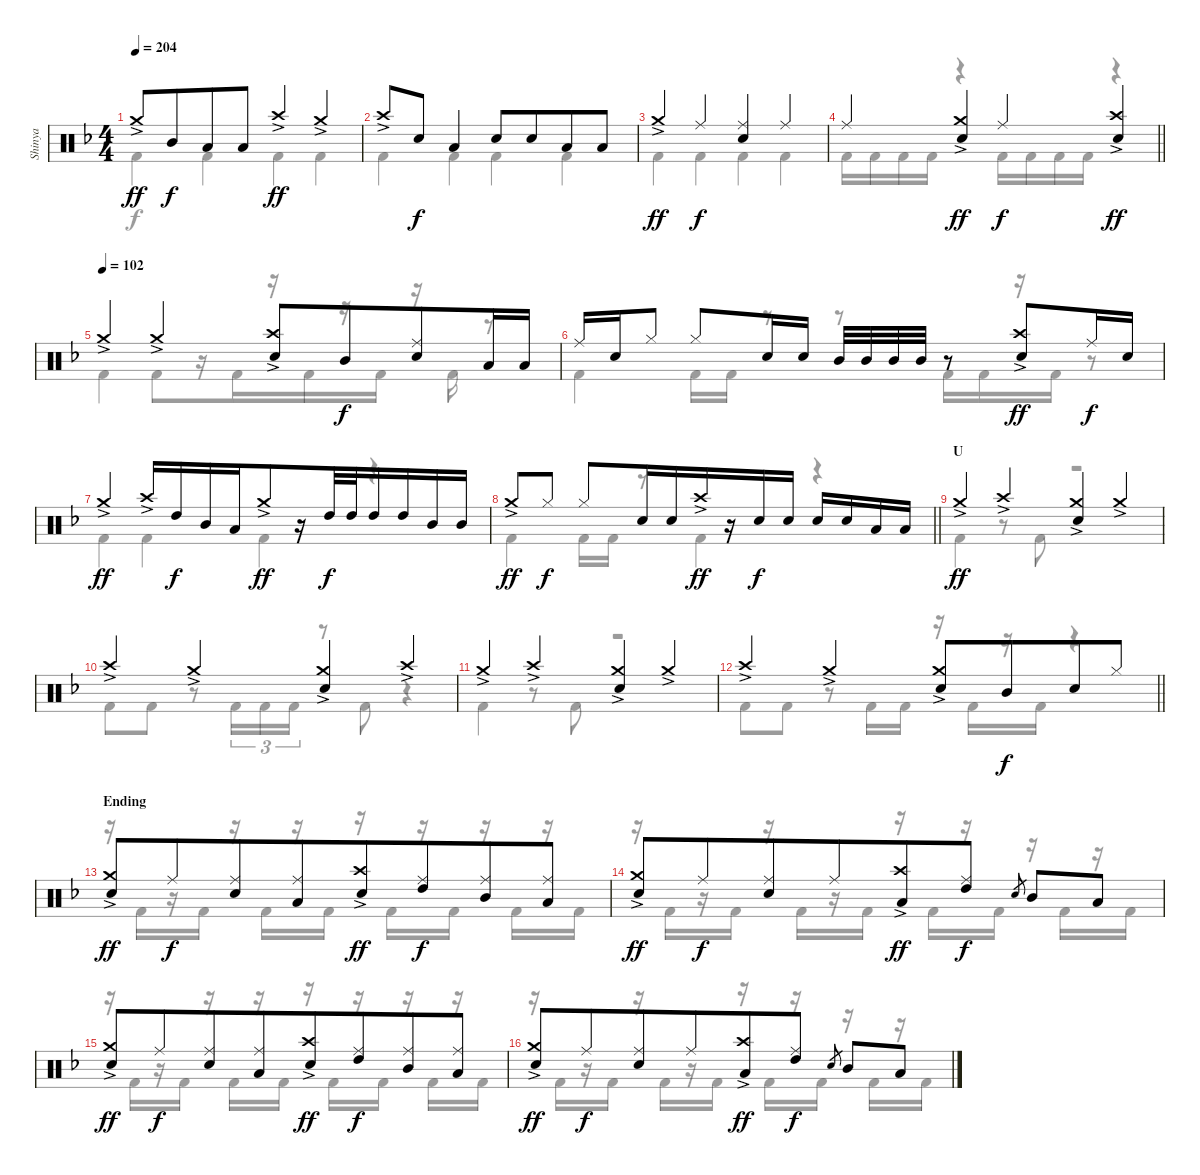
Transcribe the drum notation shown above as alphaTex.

\track ("Shinya" "Shinya") {mute instrument percussion}
\staff {score}
\articulation defaults
\voice
\ts (4 4)
\tempo 204
\clef neutral
\ks f "Crash medium (hit)"{ac}.8{dy ff} "Mid Tom (hit)".8{dy f beam merge} "Low Tom (hit)".8{beam merge} "Low Tom (hit)".8{beam merge} "Crash high (hit)"{ac}.4{dy ff} "Crash medium (hit)"{ac}.4
|
"Crash high (hit)"{ac}.8 "Snare (hit) 2".8{dy f} "Low Tom (hit)".4{beam merge} "Snare (hit) 2".8 "Snare (hit) 2".8{beam merge} "Low Tom (hit)".8 "Low Tom (hit)".8 |
"Crash medium (hit)"{ac}.4{dy ff} "Ride (middle)".4{dy f} ("Ride (middle)" "Snare (hit) 2").4{beam merge} "Ride (middle)".4 |
\barLineRight lightlight "Ride (middle)".4
("Crash medium (hit)"{ac} "Snare (hit) 2").4{dy ff} "Ride (middle)".4{dy f beam merge} ("Crash high (hit)"{ac} "Snare (hit) 2").4{dy ff} |
\tempo (102)
"Crash medium (hit)"{ac}.4{beam merge} "Crash medium (hit)"{ac}.4{beam merge} ("Crash high (hit)"{ac} "Snare (hit) 2").8 "Mid Tom (hit)".8{dy f beam merge} ("Ride (middle)" "Snare (hit) 2").8 "Low Tom (hit)".16 "Low Tom (hit)".16 |
"Ride (middle)".16 "Snare (hit) 2".16 "Hi-Hat (closed)".8 "Hi-Hat (closed)".8 "Snare (hit) 2".16{beam merge} "Snare (hit) 2".16 "Mid Tom (hit)".32 "Mid Tom (hit)".32 "Mid Tom (hit)".32{beam merge} "Mid Tom (hit)".32 r.8{beam merge} ("Crash high (hit)"{ac} "Snare (hit) 2").8{dy ff} "Ride (middle)".16{dy f} "Snare (hit) 2".16 |
"Crash medium (hit)"{ac}.4{dy ff} "Crash high (hit)"{ac}.16 "High Tom (hit)".16{dy f} "Mid Tom (hit)".16 "Low Tom (hit)".16{beam merge} "Crash medium (hit)"{ac}.8{dy ff} r.16 "High Tom (hit)".32{dy f} "High Tom (hit)".32{beam merge} "High Tom (hit)".16 "High Tom (hit)".16 "Mid Tom (hit)".16{beam merge} "Mid Tom (hit)".16 |
\barLineRight lightlight "Crash medium (hit)"{ac}.8{dy ff} "Hi-Hat (closed)".8{dy f} "Hi-Hat (closed)".8{beam merge} "Snare (hit) 2".16{beam merge} "Snare (hit) 2".16{beam merge} "Crash high (hit)"{ac}.16{dy ff}
r.16{beam merge} "Snare (hit) 2".16{dy f} "Snare (hit) 2".16 "Snare (hit) 2".16{beam merge} "Snare (hit) 2".16 "Low Tom (hit)".16 "Low Tom (hit)".16 |
\section ("" "U")
"Crash medium (hit)"{ac}.4{dy ff} "Crash high (hit)"{ac}.4 ("Crash medium (hit)"{ac} "Snare (hit) 2").4{beam merge} "Crash medium (hit)"{ac}.4 |
"Crash high (hit)"{ac}.4 "Crash medium (hit)"{ac}.4 ("Crash medium (hit)"{ac} "Snare (hit) 2").4{beam merge} "Crash high (hit)"{ac}.4 |
"Crash medium (hit)"{ac}.4 "Crash high (hit)"{ac}.4 ("Crash medium (hit)"{ac} "Snare (hit) 2").4{beam merge} "Crash medium (hit)"{ac}.4 |
\barLineRight lightlight "Crash high (hit)"{ac}.4 "Crash medium (hit)"{ac}.4{beam merge}
("Crash medium (hit)"{ac} "Snare (hit) 2").8 "Mid Tom (hit)".8{dy f beam merge} "Snare (hit) 2".8 "Hi-Hat (closed)".8 |
\section ("" "Ending")
("Crash medium (hit)"{ac} "Snare (hit) 2").8{dy ff} "Ride (middle)".8{dy f beam merge} ("Ride (middle)" "Snare (hit) 2").8{beam merge} ("Ride (middle)" "Low Tom (hit)").8{beam merge} ("Crash high (hit)"{ac} "Snare (hit) 2").8{dy ff} ("Ride (middle)" "High Tom (hit)").8{dy f beam merge} ("Ride (middle)" "Mid Tom (hit)").8 ("Ride (middle)" "Low Tom (hit)").8 |
("Crash medium (hit)"{ac} "Snare (hit) 2").8{dy ff} "Ride (middle)".8{dy f beam merge} ("Ride (middle)" "Snare (hit) 2").8{beam merge} "Ride (middle)".8{beam merge} ("Crash high (hit)"{ac} "Low Tom (hit)").8{dy ff} ("Ride (middle)" "High Tom (hit)").8{dy f} "Snare (hit)"{h}.8{gr beam merge} "Mid Tom (hit)".8 "Low Tom (hit)".8 |
("Crash medium (hit)"{ac} "Snare (hit) 2").8{dy ff} "Ride (middle)".8{dy f beam merge} ("Ride (middle)" "Snare (hit) 2").8{beam merge} ("Ride (middle)" "Low Tom (hit)").8{beam merge} ("Crash high (hit)"{ac} "Snare (hit) 2").8{dy ff} ("Ride (middle)" "High Tom (hit)").8{dy f beam merge} ("Ride (middle)" "Mid Tom (hit)").8 ("Ride (middle)" "Low Tom (hit)").8 |
("Crash medium (hit)"{ac} "Snare (hit) 2").8{dy ff} "Ride (middle)".8{dy f beam merge} ("Ride (middle)" "Snare (hit) 2").8{beam merge} "Ride (middle)".8{beam merge} ("Crash high (hit)"{ac} "Low Tom (hit)").8{dy ff} ("Ride (middle)" "High Tom (hit)").8{dy f} "Snare (hit)"{h}.8{gr beam merge} "Mid Tom (hit)".8 "Low Tom (hit)".8
\voice
\clef neutral
\ottava regular
\simile none
\ks f "Kick (hit) 2".4{dy f} "Kick (hit) 2".4 "Kick (hit) 2".4 "Kick (hit) 2".4
|
"Kick (hit) 2".4 "Kick (hit) 2".4 "Kick (hit) 2".4 "Kick (hit) 2".4 |
"Kick (hit) 2".4 "Kick (hit) 2".4 "Kick (hit) 2".4 "Kick (hit) 2".4 |
\barLineRight lightlight "Kick (hit) 2".16 "Kick (hit) 2".16 "Kick (hit) 2".16 "Kick (hit) 2".16
r.4 "Kick (hit) 2".16 "Kick (hit) 2".16 "Kick (hit) 2".16 "Kick (hit) 2".16 r.4 |
"Kick (hit) 2".4 "Kick (hit) 2".8 r.16 "Kick (hit) 2".16{beam merge} r.16 "Kick (hit) 2".16 r.16 "Kick (hit) 2".16 r.16 "Kick (hit) 2".16 r.8 |
"Kick (hit) 2".4 "Kick (hit) 2".16 "Kick (hit) 2".16 r.8 r.8 "Kick (hit) 2".16 "Kick (hit) 2".16{beam merge} r.16 "Kick (hit) 2".16 r.8 |
"Kick (hit) 2".4 "Kick (hit) 2".4 "Kick (hit) 2".4 r.4 |
\barLineRight lightlight "Kick (hit) 2".4{beam merge} "Kick (hit) 2".16 "Kick (hit) 2".16
r.8 "Kick (hit) 2".4 r.4 |
"Kick (hit) 2".4 r.8 "Kick (hit) 2".8 r.2 |
"Kick (hit) 2".8 "Kick (hit) 2".8 r.8{beam merge} "Kick (hit) 2".16{tu (3 2)} "Kick (hit) 2".16{tu (3 2)} "Kick (hit) 2".16{tu (3 2)} r.8 "Kick (hit) 2".8 r.4 |
"Kick (hit) 2".4 r.8 "Kick (hit) 2".8 r.2 |
\barLineRight lightlight "Kick (hit) 2".8 "Kick (hit) 2".8
r.8 "Kick (hit) 2".16 "Kick (hit) 2".16 r.16 "Kick (hit) 2".16 r.16 "Kick (hit) 2".16 r.4 |
r.16 "Kick (hit) 2".16 r.16 "Kick (hit) 2".16 r.16 "Kick (hit) 2".16 r.16 "Kick (hit) 2".16 r.16 "Kick (hit) 2".16 r.16 "Kick (hit) 2".16 r.16 "Kick (hit) 2".16 r.16 "Kick (hit) 2".16 |
r.16 "Kick (hit) 2".16 r.16 "Kick (hit) 2".16 r.16 "Kick (hit) 2".16 r.16 "Kick (hit) 2".16 r.16 "Kick (hit) 2".16 r.16 "Kick (hit) 2".16 r.16 "Kick (hit) 2".16 r.16 "Kick (hit) 2".16 |
r.16 "Kick (hit) 2".16 r.16 "Kick (hit) 2".16 r.16 "Kick (hit) 2".16 r.16 "Kick (hit) 2".16 r.16 "Kick (hit) 2".16 r.16 "Kick (hit) 2".16 r.16 "Kick (hit) 2".16 r.16 "Kick (hit) 2".16 |
r.16 "Kick (hit) 2".16 r.16 "Kick (hit) 2".16 r.16 "Kick (hit) 2".16 r.16 "Kick (hit) 2".16 r.16 "Kick (hit) 2".16 r.16 "Kick (hit) 2".16 r.16 "Kick (hit) 2".16 r.16 "Kick (hit) 2".16
